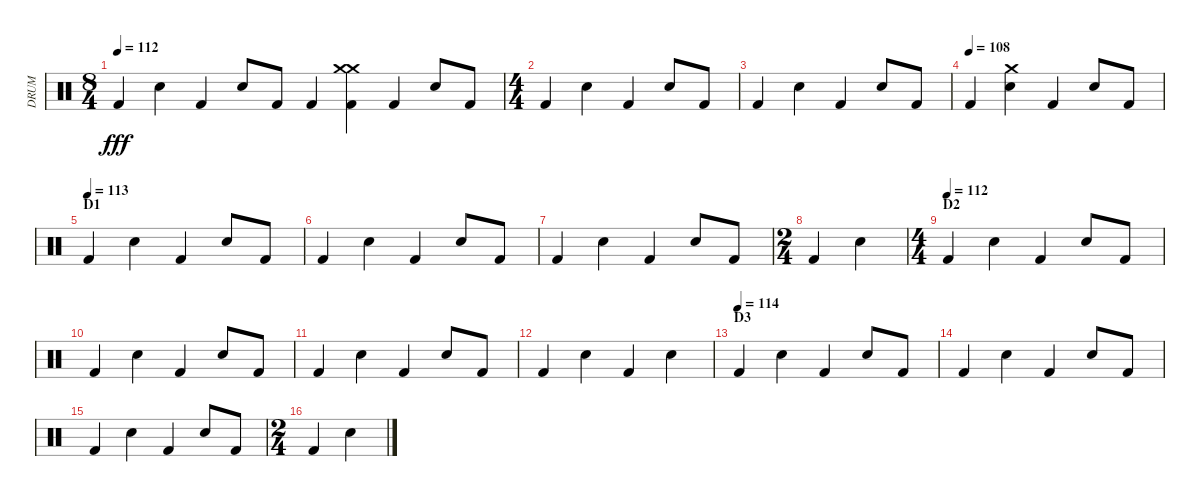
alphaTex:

\track ("DRUM" "DRUM") {instrument percussion}
\staff {score}
\articulation defaults
\ts (8 4)
\tempo 112
\clef neutral
\ks c "Kick (hit) 2".4{dy fff} "Electric Snare (hit)".4 "Kick (hit) 2".4 "Electric Snare (hit)".8 "Kick (hit) 2".8 "Kick (hit) 2".4
("Kick (hit) 2" "Crash medium (hit)" "Crash medium (hit)").4 "Kick (hit) 2".4 "Electric Snare (hit)".8 "Kick (hit) 2".8 |
\ts (4 4)
"Kick (hit) 2".4 "Electric Snare (hit)".4 "Kick (hit) 2".4 "Electric Snare (hit)".8 "Kick (hit) 2".8 |
"Kick (hit) 2".4 "Electric Snare (hit)".4 "Kick (hit) 2".4 "Electric Snare (hit)".8 "Kick (hit) 2".8 |
\tempo (108)
"Kick (hit) 2".4 ("Electric Snare (hit)" "Crash medium (hit)").4 "Kick (hit) 2".4 "Electric Snare (hit)".8 "Kick (hit) 2".8 |
\section ("" "D1")
\tempo (113)
"Kick (hit) 2".4 "Electric Snare (hit)".4 "Kick (hit) 2".4 "Electric Snare (hit)".8 "Kick (hit) 2".8 |
"Kick (hit) 2".4 "Electric Snare (hit)".4 "Kick (hit) 2".4 "Electric Snare (hit)".8 "Kick (hit) 2".8 |
"Kick (hit) 2".4 "Electric Snare (hit)".4 "Kick (hit) 2".4 "Electric Snare (hit)".8 "Kick (hit) 2".8 |
\ts (2 4)
"Kick (hit) 2".4 "Electric Snare (hit)".4 |
\ts (4 4)
\section ("" "D2")
\tempo (112)
"Kick (hit) 2".4 "Electric Snare (hit)".4 "Kick (hit) 2".4 "Electric Snare (hit)".8 "Kick (hit) 2".8 |
"Kick (hit) 2".4 "Electric Snare (hit)".4 "Kick (hit) 2".4 "Electric Snare (hit)".8 "Kick (hit) 2".8 |
"Kick (hit) 2".4 "Electric Snare (hit)".4 "Kick (hit) 2".4 "Electric Snare (hit)".8 "Kick (hit) 2".8 |
"Kick (hit) 2".4 "Electric Snare (hit)".4 "Kick (hit) 2".4 "Electric Snare (hit)".4 |
\section ("" "D3")
\tempo (114)
"Kick (hit) 2".4 "Electric Snare (hit)".4 "Kick (hit) 2".4 "Electric Snare (hit)".8 "Kick (hit) 2".8 |
"Kick (hit) 2".4 "Electric Snare (hit)".4 "Kick (hit) 2".4 "Electric Snare (hit)".8 "Kick (hit) 2".8 |
"Kick (hit) 2".4 "Electric Snare (hit)".4 "Kick (hit) 2".4 "Electric Snare (hit)".8 "Kick (hit) 2".8 |
\ts (2 4)
"Kick (hit) 2".4 "Electric Snare (hit)".4
